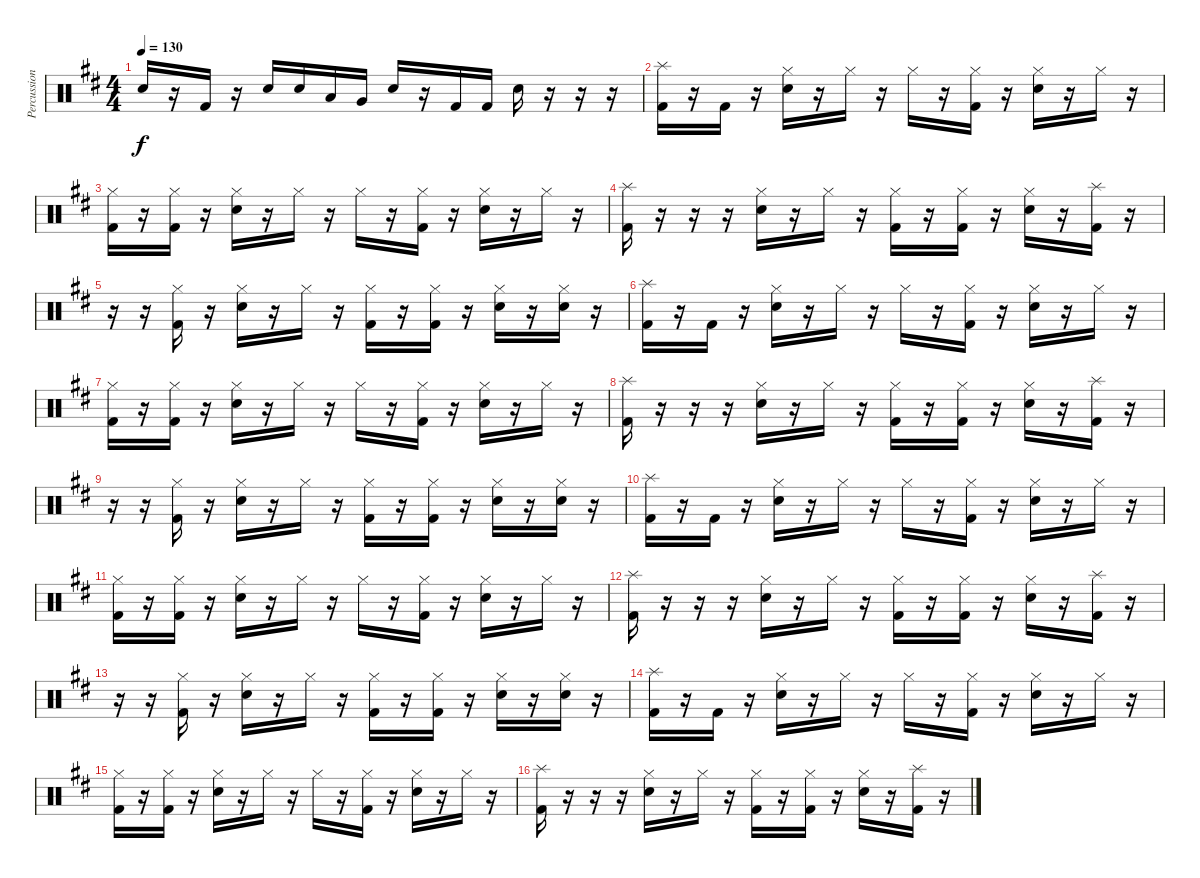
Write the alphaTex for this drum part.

\track ("Percussioni" "Percussion") {instrument percussion}
\staff {score}
\articulation defaults
\ts (4 4)
\tempo 130
\clef neutral
\ks d "Snare (hit) 2".16{dy f}
r.16 "Kick (hit) 2".16 r.16 "Snare (hit) 2".16 "Snare (hit) 2".16 "Low Tom (hit)".16 "Very Low Tom (hit)".16 "Snare (hit) 2".16 r.16 "Kick (hit) 2".16 "Kick (hit) 2".16 "Snare (hit) 2".16 r.16 r.16 r.16 |
("Kick (hit) 2" "Splash (hit)").16 r.16 "Kick (hit) 2".16 r.16 ("Snare (hit) 2" "Hi-Hat (closed)").16 r.16 "Hi-Hat (closed)".16 r.16 "Hi-Hat (closed)".16 r.16 ("Kick (hit) 2" "Hi-Hat (closed)").16 r.16 ("Snare (hit) 2" "Hi-Hat (closed)").16 r.16 "Hi-Hat (closed)".16 r.16 |
("Kick (hit) 2" "Hi-Hat (closed)").16 r.16 ("Kick (hit) 2" "Hi-Hat (closed)").16 r.16 ("Snare (hit) 2" "Hi-Hat (closed)").16 r.16 "Hi-Hat (closed)".16 r.16 "Hi-Hat (closed)".16 r.16 ("Kick (hit) 2" "Hi-Hat (closed)").16 r.16 ("Snare (hit) 2" "Hi-Hat (closed)").16 r.16 "Hi-Hat (closed)".16 r.16 |
("Kick (hit) 2" "Splash (hit)").16 r.16 r.16 r.16 ("Snare (hit) 2" "Hi-Hat (closed)").16 r.16 "Hi-Hat (closed)".16 r.16 ("Kick (hit) 2" "Hi-Hat (closed)").16 r.16 ("Kick (hit) 2" "Hi-Hat (closed)").16 r.16 ("Snare (hit) 2" "Hi-Hat (closed)").16 r.16 ("Kick (hit) 2" "Splash (hit)").16 r.16 |
r.16 r.16 ("Kick (hit) 2" "Hi-Hat (closed)").16 r.16 ("Snare (hit) 2" "Hi-Hat (closed)").16 r.16 "Hi-Hat (closed)".16 r.16 ("Kick (hit) 2" "Hi-Hat (closed)").16 r.16 ("Kick (hit) 2" "Hi-Hat (closed)").16 r.16 ("Snare (hit) 2" "Hi-Hat (closed)").16 r.16 ("Snare (hit) 2" "Hi-Hat (closed)").16 r.16 |
("Kick (hit) 2" "Splash (hit)").16 r.16 "Kick (hit) 2".16 r.16 ("Snare (hit) 2" "Hi-Hat (closed)").16 r.16 "Hi-Hat (closed)".16 r.16 "Hi-Hat (closed)".16 r.16 ("Kick (hit) 2" "Hi-Hat (closed)").16 r.16 ("Snare (hit) 2" "Hi-Hat (closed)").16 r.16 "Hi-Hat (closed)".16 r.16 |
("Kick (hit) 2" "Hi-Hat (closed)").16 r.16 ("Kick (hit) 2" "Hi-Hat (closed)").16 r.16 ("Snare (hit) 2" "Hi-Hat (closed)").16 r.16 "Hi-Hat (closed)".16 r.16 "Hi-Hat (closed)".16 r.16 ("Kick (hit) 2" "Hi-Hat (closed)").16 r.16 ("Snare (hit) 2" "Hi-Hat (closed)").16 r.16 "Hi-Hat (closed)".16 r.16 |
("Kick (hit) 2" "Splash (hit)").16 r.16 r.16 r.16 ("Snare (hit) 2" "Hi-Hat (closed)").16 r.16 "Hi-Hat (closed)".16 r.16 ("Kick (hit) 2" "Hi-Hat (closed)").16 r.16 ("Kick (hit) 2" "Hi-Hat (closed)").16 r.16 ("Snare (hit) 2" "Hi-Hat (closed)").16 r.16 ("Kick (hit) 2" "Splash (hit)").16 r.16 |
r.16 r.16 ("Kick (hit) 2" "Hi-Hat (closed)").16 r.16 ("Snare (hit) 2" "Hi-Hat (closed)").16 r.16 "Hi-Hat (closed)".16 r.16 ("Kick (hit) 2" "Hi-Hat (closed)").16 r.16 ("Kick (hit) 2" "Hi-Hat (closed)").16 r.16 ("Snare (hit) 2" "Hi-Hat (closed)").16 r.16 ("Snare (hit) 2" "Hi-Hat (closed)").16 r.16 |
("Kick (hit) 2" "Splash (hit)").16 r.16 "Kick (hit) 2".16 r.16 ("Snare (hit) 2" "Hi-Hat (closed)").16 r.16 "Hi-Hat (closed)".16 r.16 "Hi-Hat (closed)".16 r.16 ("Kick (hit) 2" "Hi-Hat (closed)").16 r.16 ("Snare (hit) 2" "Hi-Hat (closed)").16 r.16 "Hi-Hat (closed)".16 r.16 |
("Kick (hit) 2" "Hi-Hat (closed)").16 r.16 ("Kick (hit) 2" "Hi-Hat (closed)").16 r.16 ("Snare (hit) 2" "Hi-Hat (closed)").16 r.16 "Hi-Hat (closed)".16 r.16 "Hi-Hat (closed)".16 r.16 ("Kick (hit) 2" "Hi-Hat (closed)").16 r.16 ("Snare (hit) 2" "Hi-Hat (closed)").16 r.16 "Hi-Hat (closed)".16 r.16 |
("Kick (hit) 2" "Splash (hit)").16 r.16 r.16 r.16 ("Snare (hit) 2" "Hi-Hat (closed)").16 r.16 "Hi-Hat (closed)".16 r.16 ("Kick (hit) 2" "Hi-Hat (closed)").16 r.16 ("Kick (hit) 2" "Hi-Hat (closed)").16 r.16 ("Snare (hit) 2" "Hi-Hat (closed)").16 r.16 ("Kick (hit) 2" "Splash (hit)").16 r.16 |
r.16 r.16 ("Kick (hit) 2" "Hi-Hat (closed)").16 r.16 ("Snare (hit) 2" "Hi-Hat (closed)").16 r.16 "Hi-Hat (closed)".16 r.16 ("Kick (hit) 2" "Hi-Hat (closed)").16 r.16 ("Kick (hit) 2" "Hi-Hat (closed)").16 r.16 ("Snare (hit) 2" "Hi-Hat (closed)").16 r.16 ("Snare (hit) 2" "Hi-Hat (closed)").16 r.16 |
("Kick (hit) 2" "Splash (hit)").16 r.16 "Kick (hit) 2".16 r.16 ("Snare (hit) 2" "Hi-Hat (closed)").16 r.16 "Hi-Hat (closed)".16 r.16 "Hi-Hat (closed)".16 r.16 ("Kick (hit) 2" "Hi-Hat (closed)").16 r.16 ("Snare (hit) 2" "Hi-Hat (closed)").16 r.16 "Hi-Hat (closed)".16 r.16 |
("Kick (hit) 2" "Hi-Hat (closed)").16 r.16 ("Kick (hit) 2" "Hi-Hat (closed)").16 r.16 ("Snare (hit) 2" "Hi-Hat (closed)").16 r.16 "Hi-Hat (closed)".16 r.16 "Hi-Hat (closed)".16 r.16 ("Kick (hit) 2" "Hi-Hat (closed)").16 r.16 ("Snare (hit) 2" "Hi-Hat (closed)").16 r.16 "Hi-Hat (closed)".16 r.16 |
("Kick (hit) 2" "Splash (hit)").16 r.16 r.16 r.16 ("Snare (hit) 2" "Hi-Hat (closed)").16 r.16 "Hi-Hat (closed)".16 r.16 ("Kick (hit) 2" "Hi-Hat (closed)").16 r.16 ("Kick (hit) 2" "Hi-Hat (closed)").16 r.16 ("Snare (hit) 2" "Hi-Hat (closed)").16 r.16 ("Kick (hit) 2" "Splash (hit)").16 r.16
